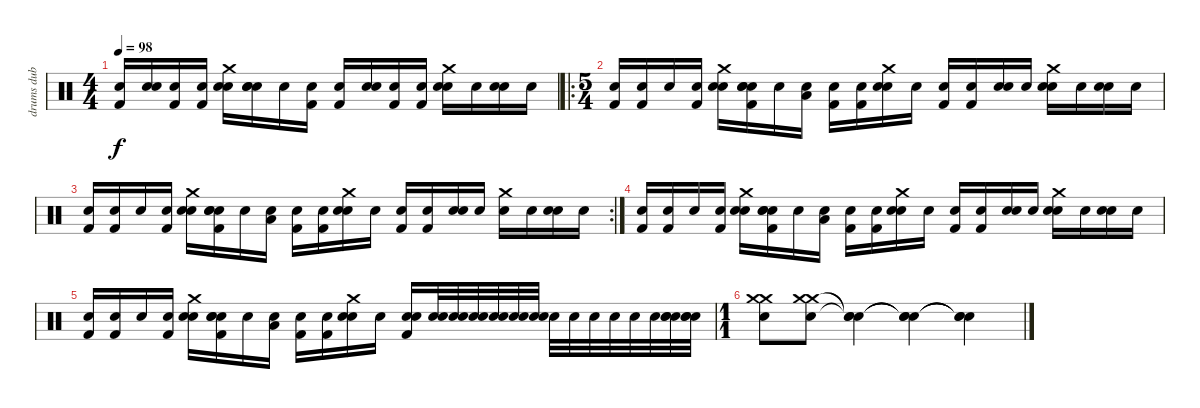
\track ("drums dub" "drums dub") {instrument percussion}
\staff {score}
\articulation defaults
\ts (4 4)
\tempo 98
\clef neutral
\ks c
("Snare (hit)" "Kick (hit) 2").16{dy f} ("Snare (hit)" "Snare (hit) 2").16 ("Snare (hit)" "Kick (hit) 2").16 ("Snare (hit)" "Kick (hit) 2").16 ("Snare (hit)" "Crash medium (hit)" "Snare (hit) 2").16 ("Snare (hit)" "Snare (hit)" "Snare (hit)").16 "Snare (hit)".16 ("Snare (hit)" "Kick (hit) 2").16 ("Snare (hit)" "Kick (hit) 2").16 ("Snare (hit)" "Snare (hit) 2").16 ("Snare (hit)" "Kick (hit) 2").16 ("Snare (hit)" "Kick (hit) 2").16 ("Snare (hit)" "Crash medium (hit)" "Snare (hit) 2").16 "Snare (hit)".16 ("Snare (hit)" "Snare (hit) 2").16 "Snare (hit)".16 |
\ro
\ts (5 4)
("Snare (hit)" "Kick (hit) 2").16 ("Snare (hit)" "Kick (hit) 2").16 "Snare (hit)".16 ("Snare (hit)" "Kick (hit) 2").16 ("Snare (hit)" "Crash medium (hit)" "Snare (hit) 2").16 ("Snare (hit)" "Snare (hit)" "Snare (hit)" "Kick (hit) 2").16 "Snare (hit)".16 ("Snare (hit)" "Low Floor Tom (hit)").16 ("Snare (hit)" "Kick (hit) 2").16 ("Snare (hit)" "Kick (hit) 2").16 ("Snare (hit)" "Crash medium (hit)" "Snare (hit) 2").16 "Snare (hit)".16 ("Snare (hit)" "Kick (hit) 2").16 ("Snare (hit)" "Kick (hit) 2").16 ("Snare (hit)" "Snare (hit) 2").16 "Snare (hit)".16 ("Snare (hit)" "Crash medium (hit)" "Snare (hit) 2").16 "Snare (hit)".16 ("Snare (hit)" "Snare (hit) 2").16 "Snare (hit)".16 |
\rc 2
("Snare (hit)" "Kick (hit) 2").16 ("Snare (hit)" "Kick (hit) 2").16 "Snare (hit)".16 ("Snare (hit)" "Kick (hit) 2").16 ("Snare (hit)" "Crash medium (hit)" "Snare (hit) 2").16 ("Snare (hit)" "Snare (hit)" "Snare (hit)" "Kick (hit) 2").16 "Snare (hit)".16 ("Snare (hit)" "Low Floor Tom (hit)").16 ("Snare (hit)" "Kick (hit) 2").16 ("Snare (hit)" "Kick (hit) 2").16 ("Snare (hit)" "Crash medium (hit)" "Snare (hit) 2").16 "Snare (hit)".16 ("Snare (hit)" "Kick (hit) 2").16 ("Snare (hit)" "Kick (hit) 2").16 ("Snare (hit)" "Snare (hit) 2").16 "Snare (hit)".16 ("Crash medium (hit)" "Snare (hit) 2").16 "Snare (hit)".16 ("Snare (hit)" "Snare (hit) 2").16 "Snare (hit)".16 |
("Snare (hit)" "Kick (hit) 2").16 ("Snare (hit)" "Kick (hit) 2").16 "Snare (hit)".16 ("Snare (hit)" "Kick (hit) 2").16 ("Snare (hit)" "Crash medium (hit)" "Snare (hit) 2").16 ("Snare (hit)" "Snare (hit)" "Snare (hit)" "Kick (hit) 2").16 "Snare (hit)".16 ("Snare (hit)" "Low Floor Tom (hit)").16 ("Snare (hit)" "Kick (hit) 2").16 ("Snare (hit)" "Kick (hit) 2").16 ("Snare (hit)" "Crash medium (hit)" "Snare (hit) 2").16 "Snare (hit)".16 ("Snare (hit)" "Kick (hit) 2").16 ("Snare (hit)" "Kick (hit) 2").16 ("Snare (hit)" "Snare (hit) 2").16 "Snare (hit)".16 ("Snare (hit)" "Crash medium (hit)" "Snare (hit) 2").16 "Snare (hit)".16 ("Snare (hit)" "Snare (hit) 2").16 "Snare (hit)".16 |
("Snare (hit)" "Kick (hit) 2").16 ("Snare (hit)" "Kick (hit) 2").16 "Snare (hit)".16 ("Snare (hit)" "Kick (hit) 2").16 ("Snare (hit)" "Crash medium (hit)" "Snare (hit) 2").16 ("Snare (hit)" "Snare (hit)" "Snare (hit)" "Kick (hit) 2").16 "Snare (hit)".16 ("Snare (hit)" "Low Floor Tom (hit)").16 ("Snare (hit)" "Kick (hit) 2").16 ("Snare (hit)" "Kick (hit) 2").16 ("Snare (hit)" "Crash medium (hit)" "Snare (hit) 2").16 "Snare (hit)".16 ("Snare (hit)" "Snare (hit)" "Kick (hit) 2").16 ("Snare (hit)" "Snare (hit) 2").32 ("Snare (hit)" "Snare (hit) 2").32 ("Snare (hit)" "Snare (hit) 2").32 ("Snare (hit)" "Snare (hit) 2").32 ("Snare (hit)" "Snare (hit) 2").32 ("Snare (hit)" "Snare (hit) 2").32 "Snare (hit)".32 "Snare (hit)".32 "Snare (hit) 2".32 "Snare (hit) 2".32 "Snare (hit) 2".32 "Snare (hit) 2".32 ("Snare (hit)" "Snare (hit)" "Snare (hit) 2").32 ("Snare (hit)" "Snare (hit)" "Snare (hit) 2").32 |
\ts (1 1)
("Crash medium (hit)" "Crash medium (hit)" "Snare (hit) 2").8 ("Crash medium (hit)" "Crash medium (hit)" "Snare (hit) 2").8 ("Snare (hit)"{t} "Snare (hit)"{t} "Snare (hit)"{t}).4 ("Snare (hit)"{t} "Snare (hit)"{t} "Snare (hit)"{t}).4 ("Snare (hit)"{t} "Snare (hit)"{t} "Snare (hit)"{t}).4
